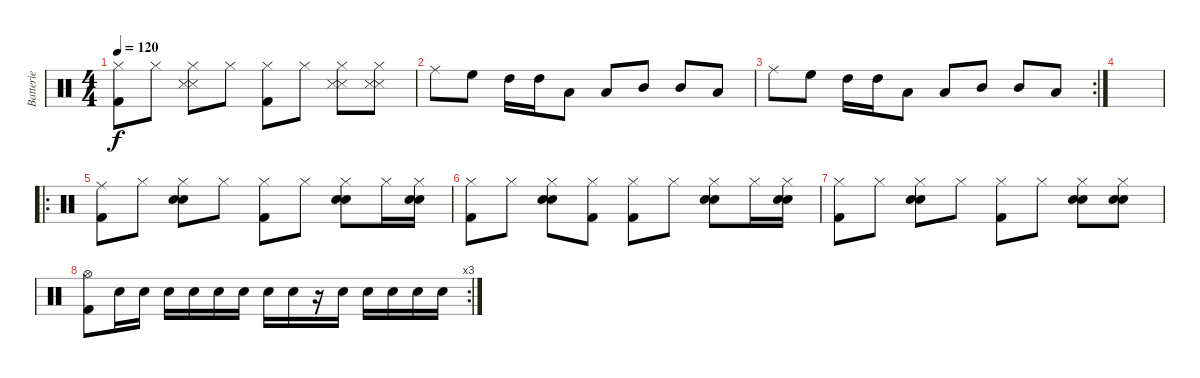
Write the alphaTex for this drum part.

\track ("Batterie" "Batterie") {instrument percussion}
\staff {score}
\articulation defaults
\ts (4 4)
\tempo 120
\clef neutral
\ks c
("Hi-Hat (closed)" "Kick (hit) 2").8{dy f} "Hi-Hat (closed)".8 ("Hi-Hat (closed)" "Snare (side stick) 3" "Snare (side stick) 3").8 "Hi-Hat (closed)".8 ("Hi-Hat (closed)" "Kick (hit) 2").8 "Hi-Hat (closed)".8 ("Hi-Hat (closed)" "Snare (side stick) 3" "Snare (side stick) 3").8 ("Hi-Hat (closed)" "Snare (side stick) 3" "Snare (side stick) 3").8 |
"Ride (middle)".8 "High Floor Tom (hit)".8 "High Tom (hit)".16 "High Tom (hit)".16 "Low Floor Tom (hit)".8 "Low Floor Tom (hit)".8 "Mid Tom (hit)".8 "Mid Tom (hit)".8 "Low Floor Tom (hit)".8 |
\rc 2 "Ride (middle)".8 "High Floor Tom (hit)".8 "High Tom (hit)".16 "High Tom (hit)".16 "Low Floor Tom (hit)".8 "Low Floor Tom (hit)".8 "Mid Tom (hit)".8 "Mid Tom (hit)".8 "Low Floor Tom (hit)".8
|
|
\ro
("Ride (middle)" "Kick (hit) 2").8 "Hi-Hat (closed)".8 ("Hi-Hat (closed)" "Electric Snare (hit)" "Electric Snare (hit)").8 "Hi-Hat (closed)".8 ("Hi-Hat (closed)" "Kick (hit) 2").8 "Hi-Hat (closed)".8 ("Hi-Hat (closed)" "Snare (hit) 2" "Electric Snare (hit)").8 "Hi-Hat (closed)".16 ("Hi-Hat (closed)" "Electric Snare (hit)" "Electric Snare (hit)").16 |
("Hi-Hat (closed)" "Kick (hit) 2").8 "Hi-Hat (closed)".8 ("Hi-Hat (closed)" "Electric Snare (hit)" "Electric Snare (hit)").8 ("Hi-Hat (closed)" "Kick (hit) 2").8 ("Hi-Hat (closed)" "Kick (hit) 2").8 "Hi-Hat (closed)".8 ("Hi-Hat (closed)" "Electric Snare (hit)" "Electric Snare (hit)").8 "Hi-Hat (closed)".16 ("Hi-Hat (closed)" "Electric Snare (hit)" "Electric Snare (hit)").16 |
("Hi-Hat (closed)" "Kick (hit) 2").8 "Hi-Hat (closed)".8 ("Hi-Hat (closed)" "Electric Snare (hit)" "Electric Snare (hit)").8 "Hi-Hat (closed)".8 ("Hi-Hat (closed)" "Kick (hit) 2").8 "Hi-Hat (closed)".8 ("Hi-Hat (closed)" "Electric Snare (hit)" "Electric Snare (hit)").8 ("Hi-Hat (closed)" "Electric Snare (hit)" "Electric Snare (hit)").8 |
\rc 3
("Hi-Hat (open)" "Kick (hit) 2").8 "Electric Snare (hit)".16 "Electric Snare (hit)".16 "Electric Snare (hit)".16 "Electric Snare (hit)".16 "Electric Snare (hit)".16 "Electric Snare (hit)".16 "Electric Snare (hit)".16 "Electric Snare (hit)".16 r.16 "Electric Snare (hit)".16 "Electric Snare (hit)".16 "Electric Snare (hit)".16 "Electric Snare (hit)".16 "Electric Snare (hit)".16
